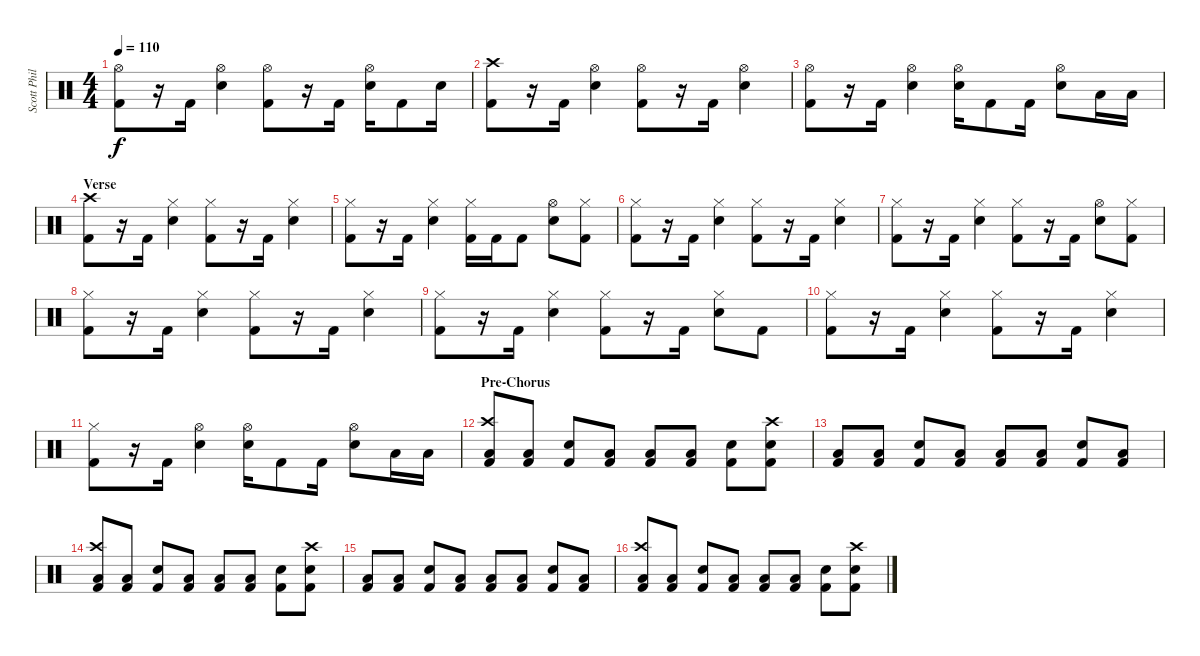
\track ("Scott Phillips" "Scott Phil") {instrument percussion}
\staff {score}
\articulation defaults
\ts (4 4)
\tempo 110
\clef neutral
\ks c
("Hi-Hat (open)" "Kick (hit) 2").8{dy f} r.16 "Kick (hit) 2".16 ("Hi-Hat (open)" "Electric Snare (hit)").4 ("Hi-Hat (open)" "Kick (hit) 2").8 r.16 "Kick (hit) 2".16 ("Hi-Hat (open)" "Electric Snare (hit)").16 "Kick (hit) 2".8 "Electric Snare (hit)".16 |
("Crash high (hit)" "Kick (hit) 2").8 r.16 "Kick (hit) 2".16 ("Hi-Hat (open)" "Electric Snare (hit)").4 ("Hi-Hat (open)" "Kick (hit) 2").8 r.16 "Kick (hit) 2".16 ("Hi-Hat (open)" "Electric Snare (hit)").4 |
("Hi-Hat (open)" "Kick (hit) 2").8 r.16 "Kick (hit) 2".16 ("Hi-Hat (open)" "Electric Snare (hit)").4 ("Hi-Hat (open)" "Electric Snare (hit)").16 "Kick (hit) 2".8 "Kick (hit) 2".16 ("Hi-Hat (open)" "Electric Snare (hit)").8 "Low Tom (hit)".16 "Low Tom (hit)".16 |
\section ("" "Verse")
("Crash high (hit)" "Kick (hit) 2").8 r.16 "Kick (hit) 2".16 ("Hi-Hat (closed)" "Electric Snare (hit)").4 ("Hi-Hat (closed)" "Kick (hit) 2").8 r.16 "Kick (hit) 2".16 ("Hi-Hat (closed)" "Electric Snare (hit)").4 |
("Hi-Hat (closed)" "Kick (hit) 2").8 r.16 "Kick (hit) 2".16 ("Hi-Hat (closed)" "Electric Snare (hit)").4 ("Hi-Hat (closed)" "Kick (hit) 2").16 "Kick (hit) 2".16 "Kick (hit) 2".8 ("Hi-Hat (open)" "Electric Snare (hit)").8 ("Hi-Hat (closed)" "Kick (hit) 2").8 |
("Hi-Hat (closed)" "Kick (hit) 2").8 r.16 "Kick (hit) 2".16 ("Hi-Hat (closed)" "Electric Snare (hit)").4 ("Hi-Hat (closed)" "Kick (hit) 2").8 r.16 "Kick (hit) 2".16 ("Hi-Hat (closed)" "Electric Snare (hit)").4 |
("Hi-Hat (closed)" "Kick (hit) 2").8 r.16 "Kick (hit) 2".16 ("Hi-Hat (closed)" "Electric Snare (hit)").4 ("Hi-Hat (closed)" "Kick (hit) 2").8 r.16 "Kick (hit) 2".16 ("Hi-Hat (open)" "Electric Snare (hit)").8 ("Hi-Hat (closed)" "Kick (hit) 2").8 |
("Hi-Hat (closed)" "Kick (hit) 2").8 r.16 "Kick (hit) 2".16 ("Hi-Hat (closed)" "Electric Snare (hit)").4 ("Hi-Hat (closed)" "Kick (hit) 2").8 r.16 "Kick (hit) 2".16 ("Hi-Hat (closed)" "Electric Snare (hit)").4 |
("Hi-Hat (closed)" "Kick (hit) 2").8 r.16 "Kick (hit) 2".16 ("Hi-Hat (closed)" "Electric Snare (hit)").4 ("Hi-Hat (closed)" "Kick (hit) 2").8 r.16 "Kick (hit) 2".16 ("Hi-Hat (closed)" "Electric Snare (hit)").8 "Kick (hit) 2".8 |
("Hi-Hat (closed)" "Kick (hit) 2").8 r.16 "Kick (hit) 2".16 ("Hi-Hat (closed)" "Electric Snare (hit)").4 ("Hi-Hat (closed)" "Kick (hit) 2").8 r.16 "Kick (hit) 2".16 ("Hi-Hat (closed)" "Electric Snare (hit)").4 |
("Hi-Hat (closed)" "Kick (hit) 2").8 r.16 "Kick (hit) 2".16 ("Hi-Hat (open)" "Electric Snare (hit)").4 ("Hi-Hat (open)" "Electric Snare (hit)").16 "Kick (hit) 2".8 "Kick (hit) 2".16 ("Hi-Hat (open)" "Electric Snare (hit)").8 "Low Tom (hit)".16 "Low Tom (hit)".16 |
\section ("" "Pre-Chorus")
("Crash high (hit)" "Low Floor Tom (hit)" "Kick (hit) 2").8 ("Low Floor Tom (hit)" "Kick (hit) 2").8 ("Electric Snare (hit)" "Kick (hit) 2").8 ("Low Floor Tom (hit)" "Kick (hit) 2").8 ("Low Floor Tom (hit)" "Kick (hit) 2").8 ("Low Floor Tom (hit)" "Kick (hit) 2").8 ("Electric Snare (hit)" "Kick (hit) 2").8 ("Crash high (hit)" "Electric Snare (hit)" "Kick (hit) 2").8 |
("Low Floor Tom (hit)" "Kick (hit) 2").8 ("Low Floor Tom (hit)" "Kick (hit) 2").8 ("Electric Snare (hit)" "Kick (hit) 2").8 ("Low Floor Tom (hit)" "Kick (hit) 2").8 ("Low Floor Tom (hit)" "Kick (hit) 2").8 ("Low Floor Tom (hit)" "Kick (hit) 2").8 ("Electric Snare (hit)" "Kick (hit) 2").8 ("Low Floor Tom (hit)" "Kick (hit) 2").8 |
("Crash high (hit)" "Low Floor Tom (hit)" "Kick (hit) 2").8 ("Low Floor Tom (hit)" "Kick (hit) 2").8 ("Electric Snare (hit)" "Kick (hit) 2").8 ("Low Floor Tom (hit)" "Kick (hit) 2").8 ("Low Floor Tom (hit)" "Kick (hit) 2").8 ("Low Floor Tom (hit)" "Kick (hit) 2").8 ("Electric Snare (hit)" "Kick (hit) 2").8 ("Crash high (hit)" "Electric Snare (hit)" "Kick (hit) 2").8 |
("Low Floor Tom (hit)" "Kick (hit) 2").8 ("Low Floor Tom (hit)" "Kick (hit) 2").8 ("Electric Snare (hit)" "Kick (hit) 2").8 ("Low Floor Tom (hit)" "Kick (hit) 2").8 ("Low Floor Tom (hit)" "Kick (hit) 2").8 ("Low Floor Tom (hit)" "Kick (hit) 2").8 ("Electric Snare (hit)" "Kick (hit) 2").8 ("Low Floor Tom (hit)" "Kick (hit) 2").8 |
("Crash high (hit)" "Low Floor Tom (hit)" "Kick (hit) 2").8 ("Low Floor Tom (hit)" "Kick (hit) 2").8 ("Electric Snare (hit)" "Kick (hit) 2").8 ("Low Floor Tom (hit)" "Kick (hit) 2").8 ("Low Floor Tom (hit)" "Kick (hit) 2").8 ("Low Floor Tom (hit)" "Kick (hit) 2").8 ("Electric Snare (hit)" "Kick (hit) 2").8 ("Crash high (hit)" "Electric Snare (hit)" "Kick (hit) 2").8
